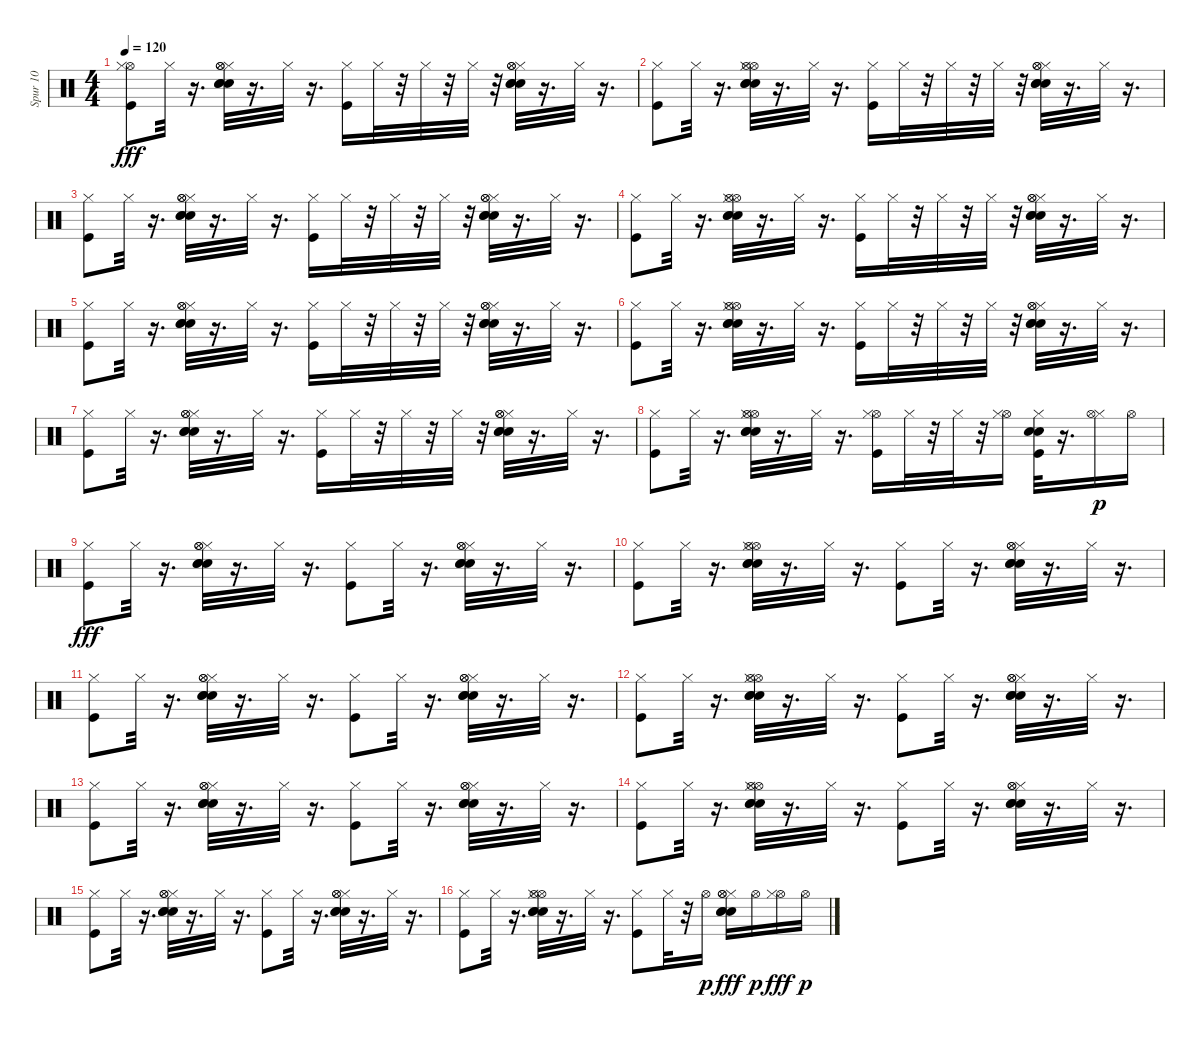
\track ("Spur 10" "Spur 10") {instrument percussion}
\staff {score}
\articulation defaults
\ts (4 4)
\tempo 120
\clef neutral
\ks c
("Hi-Hat (open)" "Kick (hit)" "Hi-Hat (closed)").8{dy fff} "Hi-Hat (closed)".32 r.16{d} ("Snare (hit) 2" "Snare (hit) 2" "Hi-Hat (closed)" "Snare (hit) 2" "Hi-Hat (open)" "Hi-Hat (open)").32 r.16{d} "Hi-Hat (closed)".32 r.16{d} ("Hi-Hat (closed)" "Kick (hit)").16 "Hi-Hat (closed)".32 r.32 "Hi-Hat (closed)".32 r.32 "Hi-Hat (closed)".32 r.32 ("Hi-Hat (closed)" "Snare (hit) 2" "Hi-Hat (open)" "Hi-Hat (open)" "Snare (hit) 2" "Snare (hit) 2").32 r.16{d} "Hi-Hat (closed)".32 r.16{d} |
("Hi-Hat (closed)" "Kick (hit)").8 "Hi-Hat (closed)".32 r.16{d} ("Hi-Hat (open)" "Hi-Hat (closed)" "Snare (hit) 2" "Hi-Hat (open)" "Snare (hit) 2" "Snare (hit) 2").32 r.16{d} "Hi-Hat (closed)".32 r.16{d} ("Kick (hit)" "Hi-Hat (closed)").16 "Hi-Hat (closed)".32 r.32 "Hi-Hat (closed)".32 r.32 "Hi-Hat (closed)".32 r.32 ("Snare (hit) 2" "Hi-Hat (closed)" "Hi-Hat (open)" "Snare (hit) 2" "Hi-Hat (open)" "Snare (hit) 2").32 r.16{d} "Hi-Hat (closed)".32 r.16{d} |
("Kick (hit)" "Hi-Hat (closed)").8 "Hi-Hat (closed)".32 r.16{d} ("Snare (hit) 2" "Snare (hit) 2" "Hi-Hat (closed)" "Snare (hit) 2" "Hi-Hat (open)" "Hi-Hat (open)").32 r.16{d} "Hi-Hat (closed)".32 r.16{d} ("Hi-Hat (closed)" "Kick (hit)").16 "Hi-Hat (closed)".32 r.32 "Hi-Hat (closed)".32 r.32 "Hi-Hat (closed)".32 r.32 ("Hi-Hat (closed)" "Snare (hit) 2" "Hi-Hat (open)" "Hi-Hat (open)" "Snare (hit) 2" "Snare (hit) 2").32 r.16{d} "Hi-Hat (closed)".32 r.16{d} |
("Hi-Hat (closed)" "Kick (hit)").8 "Hi-Hat (closed)".32 r.16{d} ("Hi-Hat (open)" "Hi-Hat (closed)" "Snare (hit) 2" "Hi-Hat (open)" "Snare (hit) 2" "Snare (hit) 2").32 r.16{d} "Hi-Hat (closed)".32 r.16{d} ("Kick (hit)" "Hi-Hat (closed)").16 "Hi-Hat (closed)".32 r.32 "Hi-Hat (closed)".32 r.32 "Hi-Hat (closed)".32 r.32 ("Snare (hit) 2" "Hi-Hat (closed)" "Hi-Hat (open)" "Snare (hit) 2" "Hi-Hat (open)" "Snare (hit) 2").32 r.16{d} "Hi-Hat (closed)".32 r.16{d} |
("Kick (hit)" "Hi-Hat (closed)").8 "Hi-Hat (closed)".32 r.16{d} ("Snare (hit) 2" "Snare (hit) 2" "Hi-Hat (closed)" "Snare (hit) 2" "Hi-Hat (open)" "Hi-Hat (open)").32 r.16{d} "Hi-Hat (closed)".32 r.16{d} ("Hi-Hat (closed)" "Kick (hit)").16 "Hi-Hat (closed)".32 r.32 "Hi-Hat (closed)".32 r.32 "Hi-Hat (closed)".32 r.32 ("Hi-Hat (closed)" "Snare (hit) 2" "Hi-Hat (open)" "Hi-Hat (open)" "Snare (hit) 2" "Snare (hit) 2").32 r.16{d} "Hi-Hat (closed)".32 r.16{d} |
("Hi-Hat (closed)" "Kick (hit)").8 "Hi-Hat (closed)".32 r.16{d} ("Hi-Hat (open)" "Hi-Hat (closed)" "Snare (hit) 2" "Hi-Hat (open)" "Snare (hit) 2" "Snare (hit) 2").32 r.16{d} "Hi-Hat (closed)".32 r.16{d} ("Kick (hit)" "Hi-Hat (closed)").16 "Hi-Hat (closed)".32 r.32 "Hi-Hat (closed)".32 r.32 "Hi-Hat (closed)".32 r.32 ("Snare (hit) 2" "Hi-Hat (closed)" "Hi-Hat (open)" "Snare (hit) 2" "Hi-Hat (open)" "Snare (hit) 2").32 r.16{d} "Hi-Hat (closed)".32 r.16{d} |
("Kick (hit)" "Hi-Hat (closed)").8 "Hi-Hat (closed)".32 r.16{d} ("Snare (hit) 2" "Snare (hit) 2" "Hi-Hat (closed)" "Snare (hit) 2" "Hi-Hat (open)" "Hi-Hat (open)").32 r.16{d} "Hi-Hat (closed)".32 r.16{d} ("Hi-Hat (closed)" "Kick (hit)").16 "Hi-Hat (closed)".32 r.32 "Hi-Hat (closed)".32 r.32 "Hi-Hat (closed)".32 r.32 ("Hi-Hat (closed)" "Snare (hit) 2" "Hi-Hat (open)" "Hi-Hat (open)" "Snare (hit) 2" "Snare (hit) 2").32 r.16{d} "Hi-Hat (closed)".32 r.16{d} |
("Hi-Hat (closed)" "Kick (hit)").8 "Hi-Hat (closed)".32 r.16{d} ("Snare (hit) 2" "Hi-Hat (open)" "Hi-Hat (open)" "Snare (hit) 2" "Snare (hit) 2" "Hi-Hat (closed)").32 r.16{d} "Hi-Hat (closed)".32 r.16{d} ("Hi-Hat (open)" "Hi-Hat (closed)" "Kick (hit)").16 "Hi-Hat (closed)".32 r.32 "Hi-Hat (closed)".32 r.32 ("Hi-Hat (open)" "Hi-Hat (closed)").16 ("Hi-Hat (closed)" "Snare (hit) 2" "Kick (hit)" "Snare (hit) 2").32 r.16{d} ("Hi-Hat (closed)" "Hi-Hat (open)").16{dy p} "Hi-Hat (open)".16 |
("Kick (hit)" "Hi-Hat (closed)").8{dy fff} "Hi-Hat (closed)".32 r.16{d} ("Snare (hit) 2" "Snare (hit) 2" "Hi-Hat (closed)" "Snare (hit) 2" "Hi-Hat (open)" "Hi-Hat (open)").32 r.16{d} "Hi-Hat (closed)".32 r.16{d} ("Hi-Hat (closed)" "Kick (hit)").8 "Hi-Hat (closed)".32 r.16{d} ("Hi-Hat (closed)" "Snare (hit) 2" "Hi-Hat (open)" "Hi-Hat (open)" "Snare (hit) 2" "Snare (hit) 2").32 r.16{d} "Hi-Hat (closed)".32 r.16{d} |
("Hi-Hat (closed)" "Kick (hit)").8 "Hi-Hat (closed)".32 r.16{d} ("Hi-Hat (open)" "Hi-Hat (closed)" "Snare (hit) 2" "Hi-Hat (open)" "Snare (hit) 2" "Snare (hit) 2").32 r.16{d} "Hi-Hat (closed)".32 r.16{d} ("Kick (hit)" "Hi-Hat (closed)").8 "Hi-Hat (closed)".32 r.16{d} ("Snare (hit) 2" "Hi-Hat (closed)" "Hi-Hat (open)" "Snare (hit) 2" "Hi-Hat (open)" "Snare (hit) 2").32 r.16{d} "Hi-Hat (closed)".32 r.16{d} |
("Kick (hit)" "Hi-Hat (closed)").8 "Hi-Hat (closed)".32 r.16{d} ("Snare (hit) 2" "Snare (hit) 2" "Hi-Hat (closed)" "Snare (hit) 2" "Hi-Hat (open)" "Hi-Hat (open)").32 r.16{d} "Hi-Hat (closed)".32 r.16{d} ("Hi-Hat (closed)" "Kick (hit)").8 "Hi-Hat (closed)".32 r.16{d} ("Hi-Hat (closed)" "Snare (hit) 2" "Hi-Hat (open)" "Hi-Hat (open)" "Snare (hit) 2" "Snare (hit) 2").32 r.16{d} "Hi-Hat (closed)".32 r.16{d} |
("Hi-Hat (closed)" "Kick (hit)").8 "Hi-Hat (closed)".32 r.16{d} ("Hi-Hat (open)" "Hi-Hat (closed)" "Snare (hit) 2" "Hi-Hat (open)" "Snare (hit) 2" "Snare (hit) 2").32 r.16{d} "Hi-Hat (closed)".32 r.16{d} ("Kick (hit)" "Hi-Hat (closed)").8 "Hi-Hat (closed)".32 r.16{d} ("Snare (hit) 2" "Hi-Hat (closed)" "Hi-Hat (open)" "Snare (hit) 2" "Hi-Hat (open)" "Snare (hit) 2").32 r.16{d} "Hi-Hat (closed)".32 r.16{d} |
("Kick (hit)" "Hi-Hat (closed)").8 "Hi-Hat (closed)".32 r.16{d} ("Snare (hit) 2" "Snare (hit) 2" "Hi-Hat (closed)" "Snare (hit) 2" "Hi-Hat (open)" "Hi-Hat (open)").32 r.16{d} "Hi-Hat (closed)".32 r.16{d} ("Hi-Hat (closed)" "Kick (hit)").8 "Hi-Hat (closed)".32 r.16{d} ("Hi-Hat (closed)" "Snare (hit) 2" "Hi-Hat (open)" "Hi-Hat (open)" "Snare (hit) 2" "Snare (hit) 2").32 r.16{d} "Hi-Hat (closed)".32 r.16{d} |
("Hi-Hat (closed)" "Kick (hit)").8 "Hi-Hat (closed)".32 r.16{d} ("Hi-Hat (open)" "Hi-Hat (closed)" "Snare (hit) 2" "Hi-Hat (open)" "Snare (hit) 2" "Snare (hit) 2").32 r.16{d} "Hi-Hat (closed)".32 r.16{d} ("Kick (hit)" "Hi-Hat (closed)").8 "Hi-Hat (closed)".32 r.16{d} ("Snare (hit) 2" "Hi-Hat (closed)" "Hi-Hat (open)" "Snare (hit) 2" "Hi-Hat (open)" "Snare (hit) 2").32 r.16{d} "Hi-Hat (closed)".32 r.16{d} |
("Kick (hit)" "Hi-Hat (closed)").8 "Hi-Hat (closed)".32 r.16{d} ("Snare (hit) 2" "Snare (hit) 2" "Hi-Hat (closed)" "Snare (hit) 2" "Hi-Hat (open)" "Hi-Hat (open)").32 r.16{d} "Hi-Hat (closed)".32 r.16{d} ("Hi-Hat (closed)" "Kick (hit)").8 "Hi-Hat (closed)".32 r.16{d} ("Hi-Hat (closed)" "Snare (hit) 2" "Hi-Hat (open)" "Hi-Hat (open)" "Snare (hit) 2" "Snare (hit) 2").32 r.16{d} "Hi-Hat (closed)".32 r.16{d} |
("Hi-Hat (closed)" "Kick (hit)").8 "Hi-Hat (closed)".32 r.16{d} ("Hi-Hat (open)" "Hi-Hat (closed)" "Snare (hit) 2" "Hi-Hat (open)" "Snare (hit) 2" "Snare (hit) 2").32 r.16{d} "Hi-Hat (closed)".32 r.16{d} ("Kick (hit)" "Hi-Hat (closed)").8 "Hi-Hat (closed)".32 r.32 "Hi-Hat (open)".16{dy p} ("Snare (hit) 2" "Hi-Hat (closed)" "Hi-Hat (open)" "Snare (hit) 2" "Hi-Hat (open)" "Snare (hit) 2").16{dy fff} "Hi-Hat (open)".16{dy p} ("Hi-Hat (open)" "Hi-Hat (closed)").16{dy fff} "Hi-Hat (open)".16{dy p}
